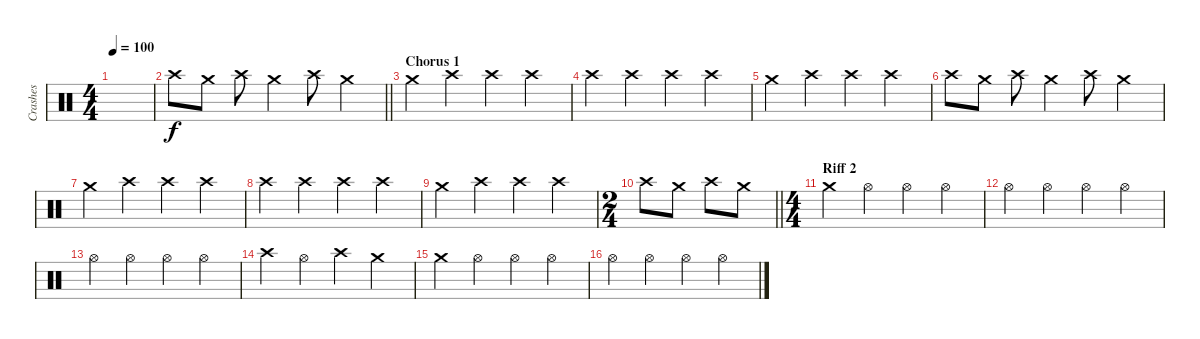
\track ("Crashes" "Crashes") {instrument percussion}
\staff {score}
\articulation defaults
\ts (4 4)
\tempo 100
\clef neutral
\ks c
|
\barLineRight lightlight "Crash high (hit)".8 "Crash medium (hit)".8 "Crash high (hit)".8 "Crash medium (hit)".4 "Crash high (hit)".8 "Crash medium (hit)".4
|
\section ("" "Chorus 1")
"Crash medium (hit)".4 "Crash high (hit)".4 "Crash high (hit)".4 "Crash high (hit)".4 |
"Crash high (hit)".4 "Crash high (hit)".4 "Crash high (hit)".4 "Crash high (hit)".4 |
"Crash medium (hit)".4 "Crash high (hit)".4 "Crash high (hit)".4 "Crash high (hit)".4 |
"Crash high (hit)".8 "Crash medium (hit)".8 "Crash high (hit)".8 "Crash medium (hit)".4 "Crash high (hit)".8 "Crash medium (hit)".4 |
"Crash medium (hit)".4 "Crash high (hit)".4 "Crash high (hit)".4 "Crash high (hit)".4 |
"Crash high (hit)".4 "Crash high (hit)".4 "Crash high (hit)".4 "Crash high (hit)".4 |
"Crash medium (hit)".4 "Crash high (hit)".4 "Crash high (hit)".4 "Crash high (hit)".4 |
\ts (2 4)
\barLineRight lightlight "Crash high (hit)".8 "Crash medium (hit)".8 "Crash high (hit)".8 "Crash medium (hit)".8
|
\ts (4 4)
\section ("" "Riff 2")
"Crash medium (hit)".4 "Hi-Hat (open)".4 "Hi-Hat (open)".4 "Hi-Hat (open)".4 |
"Hi-Hat (open)".4 "Hi-Hat (open)".4 "Hi-Hat (open)".4 "Hi-Hat (open)".4 |
"Hi-Hat (open)".4 "Hi-Hat (open)".4 "Hi-Hat (open)".4 "Hi-Hat (open)".4 |
"Crash high (hit)".4 "Hi-Hat (open)".4 "Crash high (hit)".4 "Crash medium (hit)".4 |
"Crash medium (hit)".4 "Hi-Hat (open)".4 "Hi-Hat (open)".4 "Hi-Hat (open)".4 |
"Hi-Hat (open)".4 "Hi-Hat (open)".4 "Hi-Hat (open)".4 "Hi-Hat (open)".4
